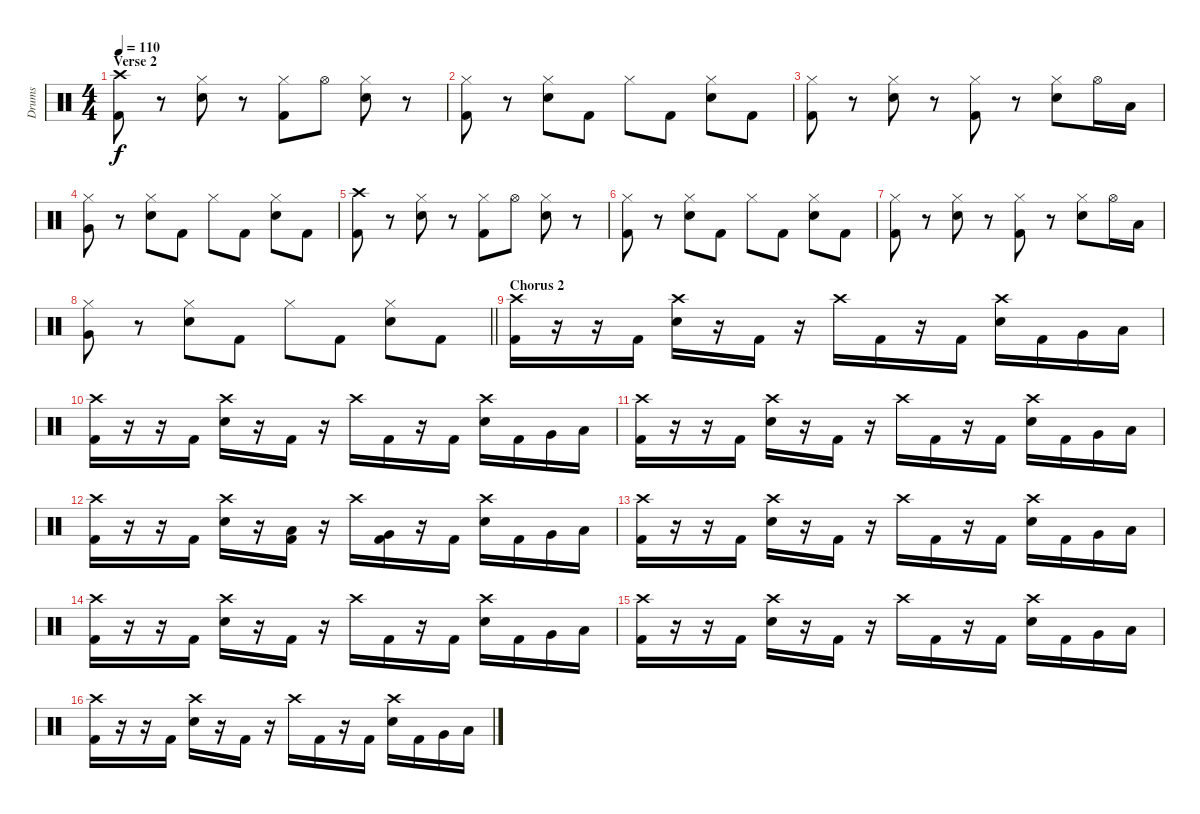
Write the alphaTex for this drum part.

\track ("Drums" "Drums") {instrument percussion}
\staff {score}
\articulation defaults
\ts (4 4)
\section ("" "Verse 2")
\tempo 110
\clef neutral
\ks c
("Crash high (hit)" "Kick (hit) 2").8{dy f} r.8 ("Hi-Hat (closed)" "Snare (hit) 2").8 r.8 ("Hi-Hat (closed)" "Kick (hit) 2").8 "Hi-Hat (open)".8 ("Hi-Hat (closed)" "Snare (hit) 2").8 r.8 |
("Hi-Hat (closed)" "Kick (hit) 2").8 r.8 ("Hi-Hat (closed)" "Snare (hit) 2").8 "Kick (hit) 2".8 "Hi-Hat (closed)".8 "Kick (hit) 2".8 ("Hi-Hat (closed)" "Snare (hit) 2").8 "Kick (hit) 2".8 |
("Hi-Hat (closed)" "Kick (hit) 2").8 r.8 ("Hi-Hat (closed)" "Snare (hit) 2").8 r.8 ("Hi-Hat (closed)" "Kick (hit) 2").8 r.8 ("Hi-Hat (closed)" "Snare (hit) 2").8 "Hi-Hat (open)".16 "Low Tom (hit)".16 |
("Hi-Hat (closed)" "Very Low Tom (hit)").8 r.8 ("Hi-Hat (closed)" "Snare (hit) 2").8 "Kick (hit) 2".8 "Hi-Hat (closed)".8 "Kick (hit) 2".8 ("Hi-Hat (closed)" "Snare (hit) 2").8 "Kick (hit) 2".8 |
("Crash high (hit)" "Kick (hit) 2").8 r.8 ("Hi-Hat (closed)" "Snare (hit) 2").8 r.8 ("Hi-Hat (closed)" "Kick (hit) 2").8 "Hi-Hat (open)".8 ("Hi-Hat (closed)" "Snare (hit) 2").8 r.8 |
("Hi-Hat (closed)" "Kick (hit) 2").8 r.8 ("Hi-Hat (closed)" "Snare (hit) 2").8 "Kick (hit) 2".8 "Hi-Hat (closed)".8 "Kick (hit) 2".8 ("Hi-Hat (closed)" "Snare (hit) 2").8 "Kick (hit) 2".8 |
("Hi-Hat (closed)" "Kick (hit) 2").8 r.8 ("Hi-Hat (closed)" "Snare (hit) 2").8 r.8 ("Hi-Hat (closed)" "Kick (hit) 2").8 r.8 ("Hi-Hat (closed)" "Snare (hit) 2").8 "Hi-Hat (open)".16 "Low Tom (hit)".16 |
\barLineRight lightlight
("Hi-Hat (closed)" "Very Low Tom (hit)").8 r.8 ("Hi-Hat (closed)" "Snare (hit) 2").8 "Kick (hit) 2".8 "Hi-Hat (closed)".8 "Kick (hit) 2".8 ("Hi-Hat (closed)" "Snare (hit) 2").8 "Kick (hit) 2".8 |
\section ("" "Chorus 2")
("Crash high (hit)" "Kick (hit) 2").16 r.16 r.16 "Kick (hit) 2".16 ("Crash high (hit)" "Snare (hit) 2").16 r.16 "Kick (hit) 2".16 r.16 "Crash high (hit)".16 "Kick (hit) 2".16 r.16 "Kick (hit) 2".16 ("Crash high (hit)" "Snare (hit) 2").16 "Kick (hit) 2".16 "Very Low Tom (hit)".16 "Low Tom (hit)".16 |
("Crash high (hit)" "Kick (hit) 2").16 r.16 r.16 "Kick (hit) 2".16 ("Crash high (hit)" "Snare (hit) 2").16 r.16 "Kick (hit) 2".16 r.16 "Crash high (hit)".16 "Kick (hit) 2".16 r.16 "Kick (hit) 2".16 ("Crash high (hit)" "Snare (hit) 2").16 "Kick (hit) 2".16 "Very Low Tom (hit)".16 "Low Tom (hit)".16 |
("Crash high (hit)" "Kick (hit) 2").16 r.16 r.16 "Kick (hit) 2".16 ("Crash high (hit)" "Snare (hit) 2").16 r.16 "Kick (hit) 2".16 r.16 "Crash high (hit)".16 "Kick (hit) 2".16 r.16 "Kick (hit) 2".16 ("Crash high (hit)" "Snare (hit) 2").16 "Kick (hit) 2".16 "Very Low Tom (hit)".16 "Low Tom (hit)".16 |
("Crash high (hit)" "Kick (hit) 2").16 r.16 r.16 "Kick (hit) 2".16 ("Crash high (hit)" "Snare (hit) 2").16 r.16 ("Low Tom (hit)" "Kick (hit) 2").16 r.16 "Crash high (hit)".16 ("Very Low Tom (hit)" "Kick (hit) 2").16 r.16 "Kick (hit) 2".16 ("Crash high (hit)" "Snare (hit) 2").16 "Kick (hit) 2".16 "Very Low Tom (hit)".16 "Low Tom (hit)".16 |
("Crash high (hit)" "Kick (hit) 2").16 r.16 r.16 "Kick (hit) 2".16 ("Crash high (hit)" "Snare (hit) 2").16 r.16 "Kick (hit) 2".16 r.16 "Crash high (hit)".16 "Kick (hit) 2".16 r.16 "Kick (hit) 2".16 ("Crash high (hit)" "Snare (hit) 2").16 "Kick (hit) 2".16 "Very Low Tom (hit)".16 "Low Tom (hit)".16 |
("Crash high (hit)" "Kick (hit) 2").16 r.16 r.16 "Kick (hit) 2".16 ("Crash high (hit)" "Snare (hit) 2").16 r.16 "Kick (hit) 2".16 r.16 "Crash high (hit)".16 "Kick (hit) 2".16 r.16 "Kick (hit) 2".16 ("Crash high (hit)" "Snare (hit) 2").16 "Kick (hit) 2".16 "Very Low Tom (hit)".16 "Low Tom (hit)".16 |
("Crash high (hit)" "Kick (hit) 2").16 r.16 r.16 "Kick (hit) 2".16 ("Crash high (hit)" "Snare (hit) 2").16 r.16 "Kick (hit) 2".16 r.16 "Crash high (hit)".16 "Kick (hit) 2".16 r.16 "Kick (hit) 2".16 ("Crash high (hit)" "Snare (hit) 2").16 "Kick (hit) 2".16 "Very Low Tom (hit)".16 "Low Tom (hit)".16 |
("Crash high (hit)" "Kick (hit) 2").16 r.16 r.16 "Kick (hit) 2".16 ("Crash high (hit)" "Snare (hit) 2").16 r.16 "Kick (hit) 2".16 r.16 "Crash high (hit)".16 "Kick (hit) 2".16 r.16 "Kick (hit) 2".16 ("Crash high (hit)" "Snare (hit) 2").16 "Kick (hit) 2".16 "Very Low Tom (hit)".16 "Low Tom (hit)".16
